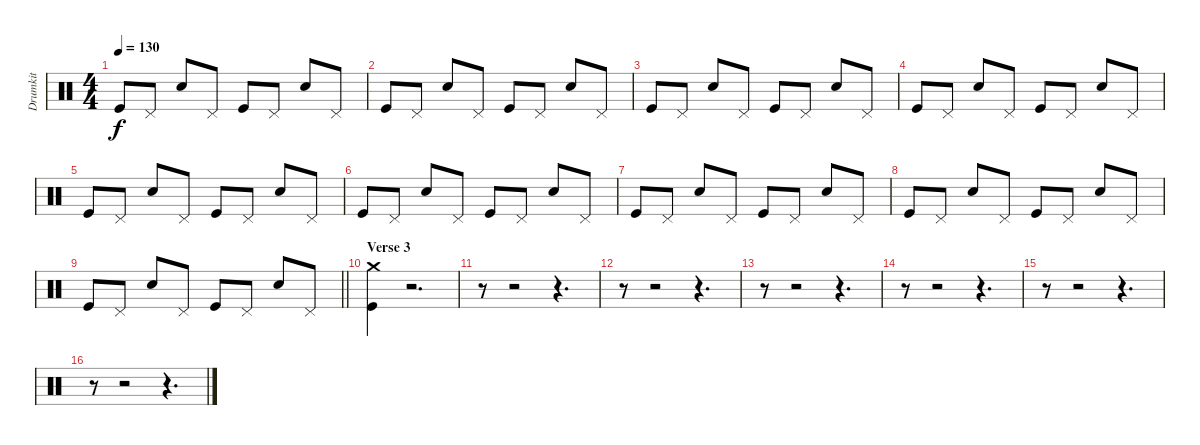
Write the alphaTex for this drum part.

\track ("Drumkit" "Drumkit") {instrument percussion}
\staff {score}
\articulation defaults
\ts (4 4)
\tempo 130
\clef neutral
\ks c "Kick (hit)".8{dy f} "Pedal Hi-Hat (hit)".8 "Snare (hit) 2".8 "Pedal Hi-Hat (hit)".8 "Kick (hit)".8 "Pedal Hi-Hat (hit)".8 "Snare (hit) 2".8 "Pedal Hi-Hat (hit)".8
|
"Kick (hit)".8 "Pedal Hi-Hat (hit)".8 "Snare (hit) 2".8 "Pedal Hi-Hat (hit)".8 "Kick (hit)".8 "Pedal Hi-Hat (hit)".8 "Snare (hit) 2".8 "Pedal Hi-Hat (hit)".8 |
"Kick (hit)".8 "Pedal Hi-Hat (hit)".8 "Snare (hit) 2".8 "Pedal Hi-Hat (hit)".8 "Kick (hit)".8 "Pedal Hi-Hat (hit)".8 "Snare (hit) 2".8 "Pedal Hi-Hat (hit)".8 |
"Kick (hit)".8 "Pedal Hi-Hat (hit)".8 "Snare (hit) 2".8 "Pedal Hi-Hat (hit)".8 "Kick (hit)".8 "Pedal Hi-Hat (hit)".8 "Snare (hit) 2".8 "Pedal Hi-Hat (hit)".8 |
"Kick (hit)".8 "Pedal Hi-Hat (hit)".8 "Snare (hit) 2".8 "Pedal Hi-Hat (hit)".8 "Kick (hit)".8 "Pedal Hi-Hat (hit)".8 "Snare (hit) 2".8 "Pedal Hi-Hat (hit)".8 |
"Kick (hit)".8 "Pedal Hi-Hat (hit)".8 "Snare (hit) 2".8 "Pedal Hi-Hat (hit)".8 "Kick (hit)".8 "Pedal Hi-Hat (hit)".8 "Snare (hit) 2".8 "Pedal Hi-Hat (hit)".8 |
"Kick (hit)".8 "Pedal Hi-Hat (hit)".8 "Snare (hit) 2".8 "Pedal Hi-Hat (hit)".8 "Kick (hit)".8 "Pedal Hi-Hat (hit)".8 "Snare (hit) 2".8 "Pedal Hi-Hat (hit)".8 |
"Kick (hit)".8 "Pedal Hi-Hat (hit)".8 "Snare (hit) 2".8 "Pedal Hi-Hat (hit)".8 "Kick (hit)".8 "Pedal Hi-Hat (hit)".8 "Snare (hit) 2".8 "Pedal Hi-Hat (hit)".8 |
\barLineRight lightlight "Kick (hit)".8 "Pedal Hi-Hat (hit)".8 "Snare (hit) 2".8 "Pedal Hi-Hat (hit)".8 "Kick (hit)".8 "Pedal Hi-Hat (hit)".8 "Snare (hit) 2".8 "Pedal Hi-Hat (hit)".8
|
\section ("" "Verse 3")
("Kick (hit)" "Crash medium (hit)").4 r.2{d} |
r.8 r.2 r.4{d} |
r.8 r.2 r.4{d} |
r.8 r.2 r.4{d} |
r.8 r.2 r.4{d} |
r.8 r.2 r.4{d} |
r.8 r.2 r.4{d}
